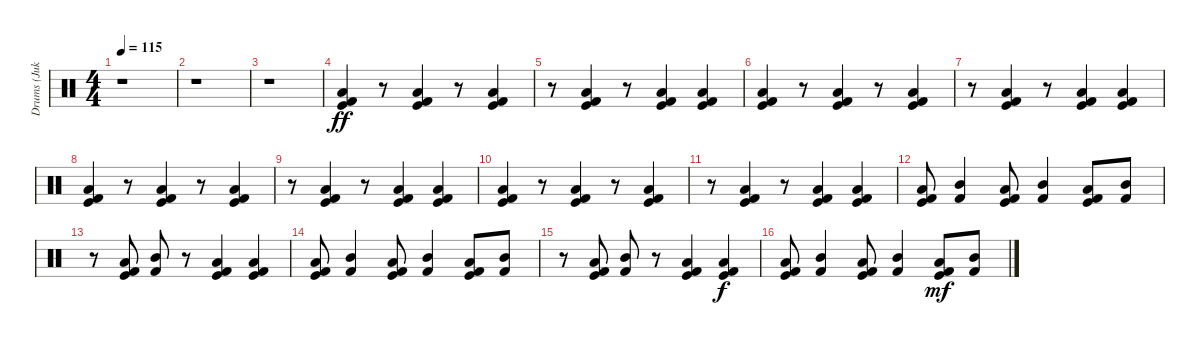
\track ("Drums (Jukka)" "Drums (Juk") {instrument percussion}
\staff {score}
\articulation defaults
\ts (4 4)
\tempo 115
\clef neutral
\ks c
r.1{dy ff} |
r.1 |
r.1 |
("Kick (hit)" "Low Tom (hit)" "Kick (hit) 2").4 r.8 ("Kick (hit)" "Low Tom (hit)" "Kick (hit) 2").4 r.8 ("Kick (hit)" "Low Tom (hit)" "Kick (hit) 2").4 |
r.8 ("Kick (hit)" "Low Tom (hit)" "Kick (hit) 2").4 r.8 ("Kick (hit)" "Low Tom (hit)" "Kick (hit) 2").4 ("Kick (hit)" "Low Tom (hit)" "Kick (hit) 2").4 |
("Kick (hit)" "Low Tom (hit)" "Kick (hit) 2").4 r.8 ("Kick (hit)" "Low Tom (hit)" "Kick (hit) 2").4 r.8 ("Kick (hit)" "Low Tom (hit)" "Kick (hit) 2").4 |
r.8 ("Kick (hit)" "Low Tom (hit)" "Kick (hit) 2").4 r.8 ("Kick (hit)" "Low Tom (hit)" "Kick (hit) 2").4 ("Kick (hit)" "Low Tom (hit)" "Kick (hit) 2").4 |
("Kick (hit)" "Low Tom (hit)" "Kick (hit) 2").4 r.8 ("Kick (hit)" "Low Tom (hit)" "Kick (hit) 2").4 r.8 ("Kick (hit)" "Low Tom (hit)" "Kick (hit) 2").4 |
r.8 ("Kick (hit)" "Low Tom (hit)" "Kick (hit) 2").4 r.8 ("Kick (hit)" "Low Tom (hit)" "Kick (hit) 2").4 ("Kick (hit)" "Low Tom (hit)" "Kick (hit) 2").4 |
("Kick (hit)" "Low Tom (hit)" "Kick (hit) 2").4 r.8 ("Kick (hit)" "Low Tom (hit)" "Kick (hit) 2").4 r.8 ("Kick (hit)" "Low Tom (hit)" "Kick (hit) 2").4 |
r.8 ("Kick (hit)" "Low Tom (hit)" "Kick (hit) 2").4 r.8 ("Kick (hit)" "Low Tom (hit)" "Kick (hit) 2").4 ("Kick (hit)" "Low Tom (hit)" "Kick (hit) 2").4 |
("Kick (hit)" "Low Tom (hit)" "Kick (hit) 2").8 ("Mid Tom (hit)" "Kick (hit) 2").4 ("Kick (hit)" "Low Tom (hit)" "Kick (hit) 2").8 ("Mid Tom (hit)" "Kick (hit) 2").4 ("Kick (hit)" "Low Tom (hit)" "Kick (hit) 2").8 ("Mid Tom (hit)" "Kick (hit) 2").8 |
r.8 ("Kick (hit)" "Low Tom (hit)" "Kick (hit) 2").8 ("Mid Tom (hit)" "Kick (hit) 2").8 r.8 ("Kick (hit)" "Low Tom (hit)" "Kick (hit) 2").4 ("Kick (hit)" "Low Tom (hit)" "Kick (hit) 2").4 |
("Kick (hit)" "Low Tom (hit)" "Kick (hit) 2").8 ("Mid Tom (hit)" "Kick (hit) 2").4 ("Kick (hit)" "Low Tom (hit)" "Kick (hit) 2").8 ("Mid Tom (hit)" "Kick (hit) 2").4 ("Kick (hit)" "Low Tom (hit)" "Kick (hit) 2").8 ("Mid Tom (hit)" "Kick (hit) 2").8 |
r.8 ("Kick (hit)" "Low Tom (hit)" "Kick (hit) 2").8 ("Mid Tom (hit)" "Kick (hit) 2").8 r.8 ("Kick (hit)" "Low Tom (hit)" "Kick (hit) 2").4 ("Kick (hit)" "Low Tom (hit)" "Kick (hit) 2").4{dy f} |
("Kick (hit)" "Low Tom (hit)" "Kick (hit) 2").8 ("Mid Tom (hit)" "Kick (hit) 2").4 ("Kick (hit)" "Low Tom (hit)" "Kick (hit) 2").8 ("Mid Tom (hit)" "Kick (hit) 2").4 ("Kick (hit)" "Low Tom (hit)" "Kick (hit) 2").8{dy mf} ("Mid Tom (hit)" "Kick (hit) 2").8
